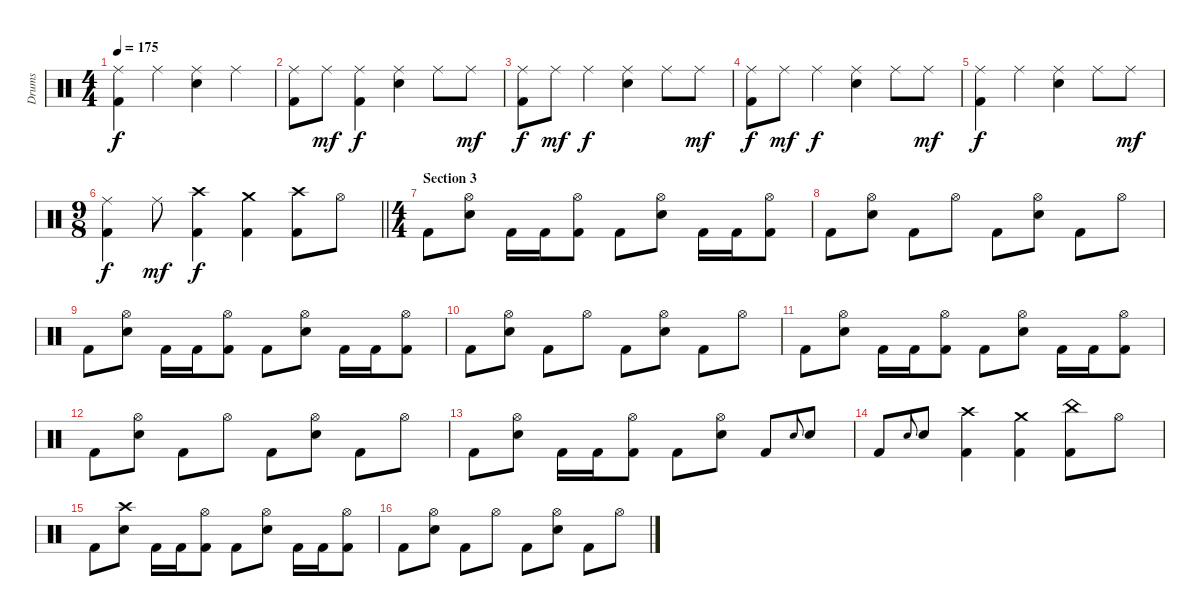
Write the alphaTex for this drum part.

\track ("Drums" "Drums") {instrument percussion}
\staff {score}
\articulation defaults
\ts (4 4)
\tempo 175
\clef neutral
\ks c
("Ride (middle)" "Kick (hit) 2").4{dy f} "Ride (middle)".4 ("Ride (middle)" "Snare (hit) 2").4 "Ride (middle)".4 |
("Ride (middle)" "Kick (hit) 2").8 "Ride (middle)".8{dy mf} ("Ride (middle)" "Kick (hit) 2").4{dy f} ("Ride (middle)" "Snare (hit) 2").4 "Ride (middle)".8 "Ride (middle)".8{dy mf} |
("Ride (middle)" "Kick (hit) 2").8{dy f} "Ride (middle)".8{dy mf} "Ride (middle)".4{dy f} ("Ride (middle)" "Snare (hit) 2").4 "Ride (middle)".8 "Ride (middle)".8{dy mf} |
("Ride (middle)" "Kick (hit) 2").8{dy f} "Ride (middle)".8{dy mf} "Ride (middle)".4{dy f} ("Ride (middle)" "Snare (hit) 2").4 "Ride (middle)".8 "Ride (middle)".8{dy mf} |
("Ride (middle)" "Kick (hit) 2").4{dy f} "Ride (middle)".4 ("Ride (middle)" "Snare (hit) 2").4 "Ride (middle)".8 "Ride (middle)".8{dy mf} |
\ts (9 8)
\barLineRight lightlight
("Ride (middle)" "Kick (hit) 2").4{dy f} "Ride (middle)".8{dy mf} ("Crash high (hit)" "Kick (hit) 2").4{dy f} ("Crash medium (hit)" "Kick (hit) 2").4 ("Crash high (hit)" "Kick (hit) 2").8 "Hi-Hat (open)".8 |
\ts (4 4)
\section ("" "Section 3")
"Kick (hit) 2".8 ("Hi-Hat (open)" "Snare (hit) 2").8 "Kick (hit) 2".16 "Kick (hit) 2".16 ("Hi-Hat (open)" "Kick (hit) 2").8 "Kick (hit) 2".8 ("Hi-Hat (open)" "Snare (hit) 2").8 "Kick (hit) 2".16 "Kick (hit) 2".16 ("Hi-Hat (open)" "Kick (hit) 2").8 |
"Kick (hit) 2".8 ("Hi-Hat (open)" "Snare (hit) 2").8 "Kick (hit) 2".8 "Hi-Hat (open)".8 "Kick (hit) 2".8 ("Hi-Hat (open)" "Snare (hit) 2").8 "Kick (hit) 2".8 "Hi-Hat (open)".8 |
"Kick (hit) 2".8 ("Hi-Hat (open)" "Snare (hit) 2").8 "Kick (hit) 2".16 "Kick (hit) 2".16 ("Hi-Hat (open)" "Kick (hit) 2").8 "Kick (hit) 2".8 ("Hi-Hat (open)" "Snare (hit) 2").8 "Kick (hit) 2".16 "Kick (hit) 2".16 ("Hi-Hat (open)" "Kick (hit) 2").8 |
"Kick (hit) 2".8 ("Hi-Hat (open)" "Snare (hit) 2").8 "Kick (hit) 2".8 "Hi-Hat (open)".8 "Kick (hit) 2".8 ("Hi-Hat (open)" "Snare (hit) 2").8 "Kick (hit) 2".8 "Hi-Hat (open)".8 |
"Kick (hit) 2".8 ("Hi-Hat (open)" "Snare (hit) 2").8 "Kick (hit) 2".16 "Kick (hit) 2".16 ("Hi-Hat (open)" "Kick (hit) 2").8 "Kick (hit) 2".8 ("Hi-Hat (open)" "Snare (hit) 2").8 "Kick (hit) 2".16 "Kick (hit) 2".16 ("Hi-Hat (open)" "Kick (hit) 2").8 |
"Kick (hit) 2".8 ("Hi-Hat (open)" "Snare (hit) 2").8 "Kick (hit) 2".8 "Hi-Hat (open)".8 "Kick (hit) 2".8 ("Hi-Hat (open)" "Snare (hit) 2").8 "Kick (hit) 2".8 "Hi-Hat (open)".8 |
"Kick (hit) 2".8 ("Hi-Hat (open)" "Snare (hit) 2").8 "Kick (hit) 2".16 "Kick (hit) 2".16 ("Hi-Hat (open)" "Kick (hit) 2").8 "Kick (hit) 2".8 ("Hi-Hat (open)" "Snare (hit) 2").8 "Kick (hit) 2".8 "Snare (hit) 2"{h}.8{gr onbeat} "Snare (hit) 2".8 |
"Kick (hit) 2".8 "Snare (hit) 2"{h}.8{gr onbeat} "Snare (hit) 2".8 ("Crash high (hit)" "Kick (hit) 2").4 ("Crash medium (hit)" "Kick (hit) 2").4 ("China (hit)" "Kick (hit) 2").8 "Hi-Hat (open)".8 |
"Kick (hit) 2".8 ("Crash high (hit)" "Snare (hit) 2").8 "Kick (hit) 2".16 "Kick (hit) 2".16 ("Hi-Hat (open)" "Kick (hit) 2").8 "Kick (hit) 2".8 ("Hi-Hat (open)" "Snare (hit) 2").8 "Kick (hit) 2".16 "Kick (hit) 2".16 ("Hi-Hat (open)" "Kick (hit) 2").8 |
"Kick (hit) 2".8 ("Hi-Hat (open)" "Snare (hit) 2").8 "Kick (hit) 2".8 "Hi-Hat (open)".8 "Kick (hit) 2".8 ("Hi-Hat (open)" "Snare (hit) 2").8 "Kick (hit) 2".8 "Hi-Hat (open)".8
